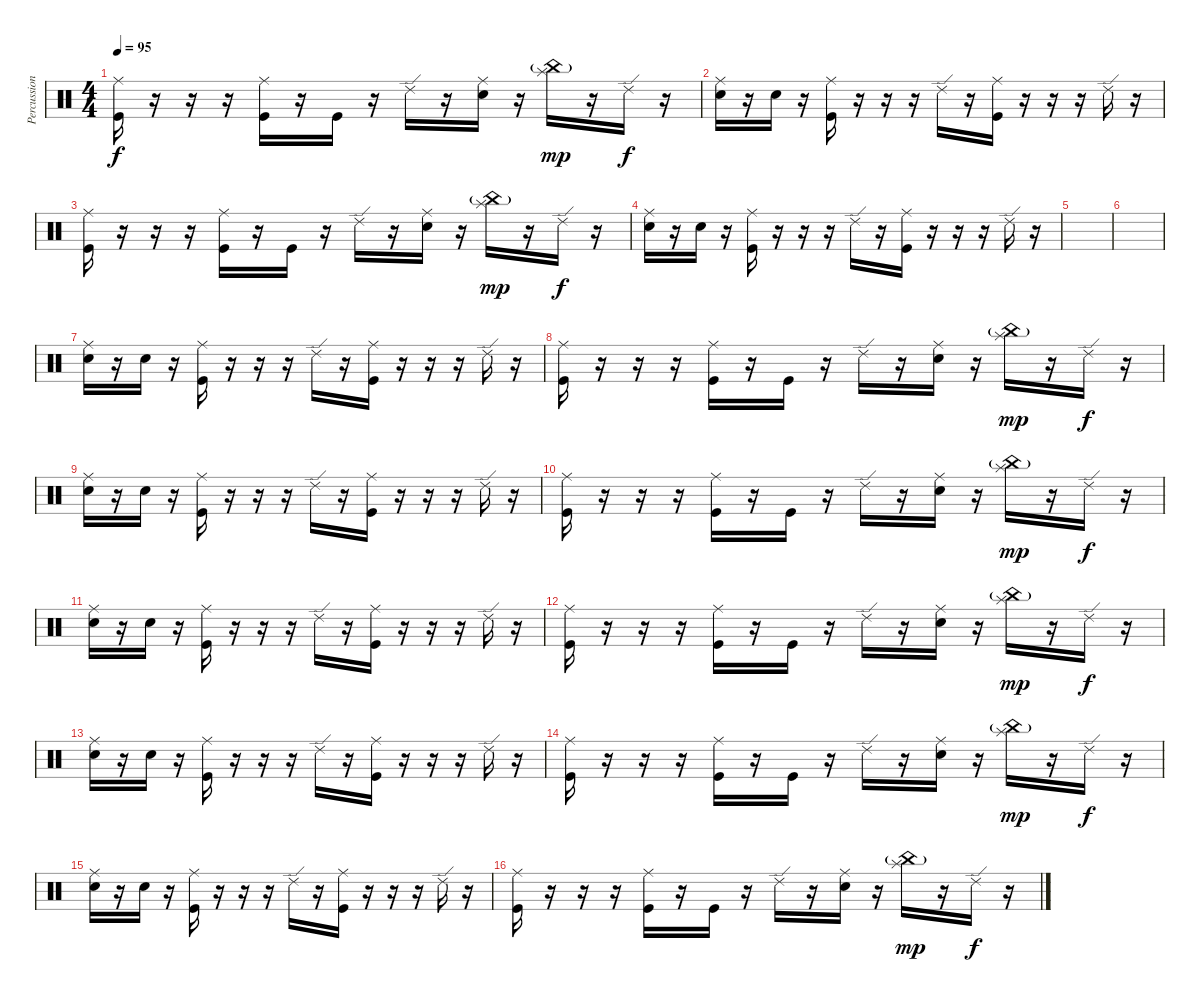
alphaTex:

\track ("Percussions" "Percussion") {instrument percussion}
\staff {score}
\articulation defaults
\ts (4 4)
\tempo 95
\clef neutral
\ks c
("Ride (middle)" "Kick (hit)").16{dy f} r.16 r.16 r.16 ("Ride (middle)" "Kick (hit)").16 r.16 "Kick (hit)".16 r.16 "Ride (edge) 2".16 r.16 ("Ride (middle)" "Electric Snare (hit)").16 r.16 ("Splash (hit)" "China (hit)"{g}).16{dy mp} r.16 "Ride (edge) 2".16{dy f} r.16 |
("Ride (middle)" "Electric Snare (hit)").16 r.16 "Electric Snare (hit)".16 r.16 ("Ride (middle)" "Kick (hit)").16 r.16 r.16 r.16 "Ride (edge) 2".16 r.16 ("Ride (middle)" "Kick (hit)").16 r.16 r.16 r.16 "Ride (edge) 2".16 r.16 |
("Ride (middle)" "Kick (hit)").16 r.16 r.16 r.16 ("Ride (middle)" "Kick (hit)").16 r.16 "Kick (hit)".16 r.16 "Ride (edge) 2".16 r.16 ("Ride (middle)" "Electric Snare (hit)").16 r.16 ("Splash (hit)" "China (hit)"{g}).16{dy mp} r.16 "Ride (edge) 2".16{dy f} r.16 |
("Ride (middle)" "Electric Snare (hit)").16 r.16 "Electric Snare (hit)".16 r.16 ("Ride (middle)" "Kick (hit)").16 r.16 r.16 r.16 "Ride (edge) 2".16 r.16 ("Ride (middle)" "Kick (hit)").16 r.16 r.16 r.16 "Ride (edge) 2".16 r.16 |
|
|
("Ride (middle)" "Electric Snare (hit)").16 r.16 "Electric Snare (hit)".16 r.16 ("Ride (middle)" "Kick (hit)").16 r.16 r.16 r.16 "Ride (edge) 2".16 r.16 ("Ride (middle)" "Kick (hit)").16 r.16 r.16 r.16 "Ride (edge) 2".16 r.16 |
("Ride (middle)" "Kick (hit)").16 r.16 r.16 r.16 ("Ride (middle)" "Kick (hit)").16 r.16 "Kick (hit)".16 r.16 "Ride (edge) 2".16 r.16 ("Ride (middle)" "Electric Snare (hit)").16 r.16 ("Splash (hit)" "China (hit)"{g}).16{dy mp} r.16 "Ride (edge) 2".16{dy f} r.16 |
("Ride (middle)" "Electric Snare (hit)").16 r.16 "Electric Snare (hit)".16 r.16 ("Ride (middle)" "Kick (hit)").16 r.16 r.16 r.16 "Ride (edge) 2".16 r.16 ("Ride (middle)" "Kick (hit)").16 r.16 r.16 r.16 "Ride (edge) 2".16 r.16 |
("Ride (middle)" "Kick (hit)").16 r.16 r.16 r.16 ("Ride (middle)" "Kick (hit)").16 r.16 "Kick (hit)".16 r.16 "Ride (edge) 2".16 r.16 ("Ride (middle)" "Electric Snare (hit)").16 r.16 ("Splash (hit)" "China (hit)"{g}).16{dy mp} r.16 "Ride (edge) 2".16{dy f} r.16 |
("Ride (middle)" "Electric Snare (hit)").16 r.16 "Electric Snare (hit)".16 r.16 ("Ride (middle)" "Kick (hit)").16 r.16 r.16 r.16 "Ride (edge) 2".16 r.16 ("Ride (middle)" "Kick (hit)").16 r.16 r.16 r.16 "Ride (edge) 2".16 r.16 |
("Ride (middle)" "Kick (hit)").16 r.16 r.16 r.16 ("Ride (middle)" "Kick (hit)").16 r.16 "Kick (hit)".16 r.16 "Ride (edge) 2".16 r.16 ("Ride (middle)" "Electric Snare (hit)").16 r.16 ("Splash (hit)" "China (hit)"{g}).16{dy mp} r.16 "Ride (edge) 2".16{dy f} r.16 |
("Ride (middle)" "Electric Snare (hit)").16 r.16 "Electric Snare (hit)".16 r.16 ("Ride (middle)" "Kick (hit)").16 r.16 r.16 r.16 "Ride (edge) 2".16 r.16 ("Ride (middle)" "Kick (hit)").16 r.16 r.16 r.16 "Ride (edge) 2".16 r.16 |
("Ride (middle)" "Kick (hit)").16 r.16 r.16 r.16 ("Ride (middle)" "Kick (hit)").16 r.16 "Kick (hit)".16 r.16 "Ride (edge) 2".16 r.16 ("Ride (middle)" "Electric Snare (hit)").16 r.16 ("Splash (hit)" "China (hit)"{g}).16{dy mp} r.16 "Ride (edge) 2".16{dy f} r.16 |
("Ride (middle)" "Electric Snare (hit)").16 r.16 "Electric Snare (hit)".16 r.16 ("Ride (middle)" "Kick (hit)").16 r.16 r.16 r.16 "Ride (edge) 2".16 r.16 ("Ride (middle)" "Kick (hit)").16 r.16 r.16 r.16 "Ride (edge) 2".16 r.16 |
("Ride (middle)" "Kick (hit)").16 r.16 r.16 r.16 ("Ride (middle)" "Kick (hit)").16 r.16 "Kick (hit)".16 r.16 "Ride (edge) 2".16 r.16 ("Ride (middle)" "Electric Snare (hit)").16 r.16 ("Splash (hit)" "China (hit)"{g}).16{dy mp} r.16 "Ride (edge) 2".16{dy f} r.16
